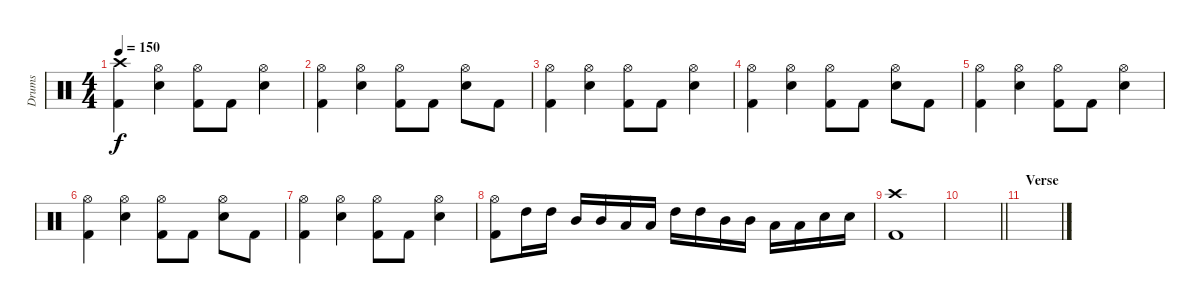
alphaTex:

\track ("Drums" "Drums") {instrument percussion}
\staff {score}
\articulation defaults
\ts (4 4)
\tempo 150
\clef neutral
\ks c
("Crash high (hit)" "Kick (hit) 2").4{dy f} ("Hi-Hat (open)" "Electric Snare (hit)").4 ("Hi-Hat (open)" "Kick (hit) 2").8 "Kick (hit) 2".8 ("Hi-Hat (open)" "Electric Snare (hit)").4 |
("Hi-Hat (open)" "Kick (hit) 2").4 ("Hi-Hat (open)" "Electric Snare (hit)").4 ("Hi-Hat (open)" "Kick (hit) 2").8 "Kick (hit) 2".8 ("Hi-Hat (open)" "Electric Snare (hit)").8 "Kick (hit) 2".8 |
("Hi-Hat (open)" "Kick (hit) 2").4 ("Hi-Hat (open)" "Electric Snare (hit)").4 ("Hi-Hat (open)" "Kick (hit) 2").8 "Kick (hit) 2".8 ("Hi-Hat (open)" "Electric Snare (hit)").4 |
("Hi-Hat (open)" "Kick (hit) 2").4 ("Hi-Hat (open)" "Electric Snare (hit)").4 ("Hi-Hat (open)" "Kick (hit) 2").8 "Kick (hit) 2".8 ("Hi-Hat (open)" "Electric Snare (hit)").8 "Kick (hit) 2".8 |
("Hi-Hat (open)" "Kick (hit) 2").4 ("Hi-Hat (open)" "Electric Snare (hit)").4 ("Hi-Hat (open)" "Kick (hit) 2").8 "Kick (hit) 2".8 ("Hi-Hat (open)" "Electric Snare (hit)").4 |
("Hi-Hat (open)" "Kick (hit) 2").4 ("Hi-Hat (open)" "Electric Snare (hit)").4 ("Hi-Hat (open)" "Kick (hit) 2").8 "Kick (hit) 2".8 ("Hi-Hat (open)" "Electric Snare (hit)").8 "Kick (hit) 2".8 |
("Hi-Hat (open)" "Kick (hit) 2").4 ("Hi-Hat (open)" "Electric Snare (hit)").4 ("Hi-Hat (open)" "Kick (hit) 2").8 "Kick (hit) 2".8 ("Hi-Hat (open)" "Electric Snare (hit)").4 |
("Hi-Hat (open)" "Kick (hit) 2").8 "High Tom (hit)".16 "High Tom (hit)".16 "Mid Tom (hit)".16 "Mid Tom (hit)".16 "Low Tom (hit)".16 "Low Tom (hit)".16 "High Tom (hit)".16 "High Tom (hit)".16 "Mid Tom (hit)".16 "Mid Tom (hit)".16 "Low Tom (hit)".16 "Low Tom (hit)".16 "Electric Snare (hit)".16 "Electric Snare (hit)".16 |
("Crash high (hit)" "Kick (hit) 2").1 |
\barLineRight lightlight
|
\section ("" "Verse")
